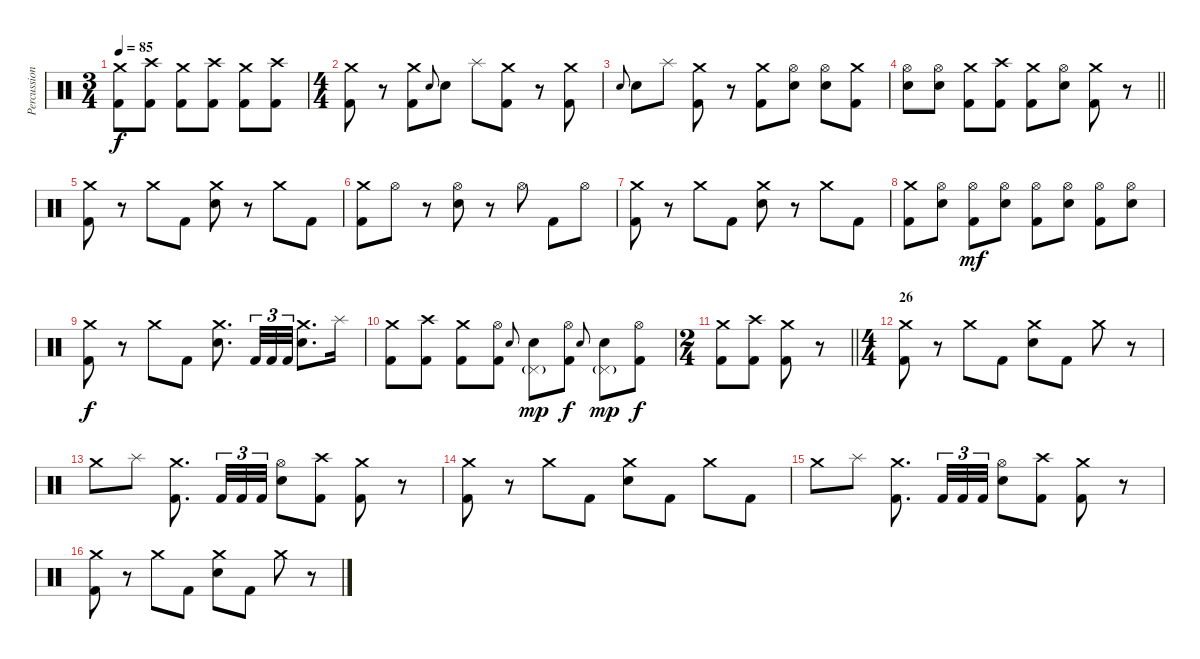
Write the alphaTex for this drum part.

\track ("Percussion" "Percussion") {instrument percussion}
\staff {score}
\articulation defaults
\ts (3 4)
\tempo 85
\clef neutral
\ks c
("Crash medium (hit)" "Kick (hit) 2").8{dy f} ("Crash high (hit)" "Kick (hit) 2").8 ("Crash medium (hit)" "Kick (hit) 2").8 ("Crash high (hit)" "Kick (hit) 2").8 ("Crash medium (hit)" "Kick (hit) 2").8 ("Crash high (hit)" "Kick (hit) 2").8 |
\ts (4 4)
("Crash medium (hit)" "Kick (hit) 2").8 r.8 ("Crash medium (hit)" "Kick (hit) 2").8 "Snare (hit) 2".8{gr onbeat} "Snare (hit) 2".8 "Splash (hit)".8 ("Crash medium (hit)" "Kick (hit) 2").8 r.8 ("Crash medium (hit)" "Kick (hit) 2").8 |
"Snare (hit) 2".8{gr onbeat} "Snare (hit) 2".8 "Splash (hit)".8 ("Crash medium (hit)" "Kick (hit) 2").8 r.8 ("Crash medium (hit)" "Kick (hit) 2").8 ("Hi-Hat (open)" "Snare (hit) 2").8 ("Hi-Hat (open)" "Snare (hit) 2").8 ("Crash medium (hit)" "Kick (hit) 2").8 |
\barLineRight lightlight
("Hi-Hat (open)" "Snare (hit) 2").8 ("Hi-Hat (open)" "Snare (hit) 2").8 ("Crash medium (hit)" "Kick (hit) 2").8 ("Crash high (hit)" "Kick (hit) 2").8 ("Crash medium (hit)" "Kick (hit) 2").8 ("Hi-Hat (open)" "Snare (hit) 2").8 ("Crash medium (hit)" "Kick (hit) 2").8 r.8 |
\section ("" "")
("Crash medium (hit)" "Kick (hit) 2").8 r.8 "Crash medium (hit)".8 "Kick (hit) 2".8 ("Crash medium (hit)" "Snare (hit) 2").8 r.8 "Crash medium (hit)".8 "Kick (hit) 2".8 |
("Crash medium (hit)" "Kick (hit) 2").8 "Hi-Hat (open)".8 r.8 ("Hi-Hat (open)" "Snare (hit) 2").8 r.8 "Hi-Hat (open)".8 "Kick (hit) 2".8 "Hi-Hat (open)".8 |
("Crash medium (hit)" "Kick (hit) 2").8 r.8 "Crash medium (hit)".8 "Kick (hit) 2".8 ("Crash medium (hit)" "Snare (hit) 2").8 r.8 "Crash medium (hit)".8 "Kick (hit) 2".8 |
("Crash medium (hit)" "Kick (hit) 2").8 ("Hi-Hat (open)" "Snare (hit) 2").8 ("Hi-Hat (open)" "Kick (hit) 2").8{dy mf} ("Hi-Hat (open)" "Snare (hit) 2").8 ("Hi-Hat (open)" "Kick (hit) 2").8 ("Hi-Hat (open)" "Snare (hit) 2").8 ("Hi-Hat (open)" "Kick (hit) 2").8 ("Hi-Hat (open)" "Snare (hit) 2").8 |
("Crash medium (hit)" "Kick (hit) 2").8{dy f} r.8 "Crash medium (hit)".8 "Kick (hit) 2".8 ("Crash medium (hit)" "Snare (hit) 2").8{d} "Kick (hit) 2".32{tu (3 2)} "Kick (hit) 2".32{tu (3 2)} "Kick (hit) 2".32{tu (3 2)} ("Crash medium (hit)" "Snare (hit) 2").8{d} "Splash (hit)".16 |
("Crash medium (hit)" "Kick (hit) 2").8 ("Crash high (hit)" "Kick (hit) 2").8 ("Crash medium (hit)" "Kick (hit) 2").8 ("Hi-Hat (open)" "Kick (hit) 2").8 "Snare (hit) 2".8{gr onbeat} ("Pedal Hi-Hat (hit)"{g} "Snare (hit) 2").8{dy mp} ("Hi-Hat (open)" "Kick (hit) 2").8{dy f} "Snare (hit) 2".8{gr onbeat} ("Pedal Hi-Hat (hit)"{g} "Snare (hit) 2").8{dy mp} ("Hi-Hat (open)" "Kick (hit) 2").8{dy f} |
\ts (2 4)
\barLineRight lightlight
("Crash medium (hit)" "Kick (hit) 2").8 ("Crash high (hit)" "Kick (hit) 2").8 ("Crash medium (hit)" "Kick (hit) 2").8 r.8 |
\ts (4 4)
\section ("" "26")
("Crash medium (hit)" "Kick (hit) 2").8 r.8 "Crash medium (hit)".8 "Kick (hit) 2".8 ("Crash medium (hit)" "Snare (hit) 2").8 "Kick (hit) 2".8 "Crash medium (hit)".8 r.8 |
"Crash medium (hit)".8 "Splash (hit)".8 ("Crash medium (hit)" "Kick (hit) 2").8{d} "Kick (hit) 2".32{tu (3 2)} "Kick (hit) 2".32{tu (3 2)} "Kick (hit) 2".32{tu (3 2)} ("Hi-Hat (open)" "Snare (hit) 2").8 ("Crash high (hit)" "Kick (hit) 2").8 ("Crash medium (hit)" "Kick (hit) 2").8 r.8 |
("Crash medium (hit)" "Kick (hit) 2").8 r.8 "Crash medium (hit)".8 "Kick (hit) 2".8 ("Crash medium (hit)" "Snare (hit) 2").8 "Kick (hit) 2".8 "Crash medium (hit)".8 "Kick (hit) 2".8 |
"Crash medium (hit)".8 "Splash (hit)".8 ("Crash medium (hit)" "Kick (hit) 2").8{d} "Kick (hit) 2".32{tu (3 2)} "Kick (hit) 2".32{tu (3 2)} "Kick (hit) 2".32{tu (3 2)} ("Hi-Hat (open)" "Snare (hit) 2").8 ("Crash high (hit)" "Kick (hit) 2").8 ("Crash medium (hit)" "Kick (hit) 2").8 r.8 |
("Crash medium (hit)" "Kick (hit) 2").8 r.8 "Crash medium (hit)".8 "Kick (hit) 2".8 ("Crash medium (hit)" "Snare (hit) 2").8 "Kick (hit) 2".8 "Crash medium (hit)".8 r.8
